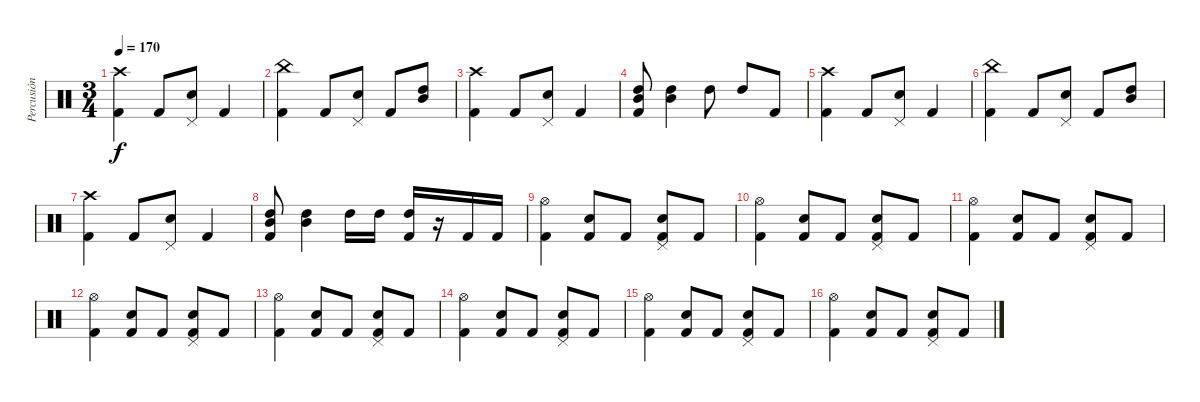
\track ("Percusión" "Percusión") {instrument percussion}
\staff {score}
\articulation defaults
\ts (3 4)
\tempo 170
\clef neutral
\ks c
("Crash high (hit)" "Kick (hit) 2").4{dy f} "Kick (hit) 2".8 ("Pedal Hi-Hat (hit)" "Snare (hit) 2").8 "Kick (hit) 2".4 |
("China (hit)" "Kick (hit) 2").4 "Kick (hit) 2".8 ("Pedal Hi-Hat (hit)" "Snare (hit) 2").8 "Kick (hit) 2".8 ("High Tom (hit)" "Mid Tom (hit)").8 |
("Crash high (hit)" "Kick (hit) 2").4 "Kick (hit) 2".8 ("Pedal Hi-Hat (hit)" "Snare (hit) 2").8 "Kick (hit) 2".4 |
("High Tom (hit)" "Mid Tom (hit)" "Kick (hit) 2").8 ("High Tom (hit)" "Mid Tom (hit)").4 "High Tom (hit)".8 "High Tom (hit)".8 "Kick (hit) 2".8 |
("Crash high (hit)" "Kick (hit) 2").4 "Kick (hit) 2".8 ("Pedal Hi-Hat (hit)" "Snare (hit) 2").8 "Kick (hit) 2".4 |
("China (hit)" "Kick (hit) 2").4 "Kick (hit) 2".8 ("Pedal Hi-Hat (hit)" "Snare (hit) 2").8 "Kick (hit) 2".8 ("High Tom (hit)" "Mid Tom (hit)").8 |
("Crash high (hit)" "Kick (hit) 2").4 "Kick (hit) 2".8 ("Pedal Hi-Hat (hit)" "Snare (hit) 2").8 "Kick (hit) 2".4 |
("High Tom (hit)" "Mid Tom (hit)" "Kick (hit) 2").8 ("High Tom (hit)" "Mid Tom (hit)").4 "High Tom (hit)".16 "High Tom (hit)".16 ("High Tom (hit)" "Kick (hit) 2").16 r.16 "Kick (hit) 2".16 "Kick (hit) 2".16 |
("Hi-Hat (open)" "Kick (hit) 2").4 ("Snare (hit) 2" "Kick (hit) 2").8 "Kick (hit) 2".8 ("Pedal Hi-Hat (hit)" "Snare (hit) 2" "Kick (hit) 2").8 "Kick (hit) 2".8 |
("Hi-Hat (open)" "Kick (hit) 2").4 ("Snare (hit) 2" "Kick (hit) 2").8 "Kick (hit) 2".8 ("Pedal Hi-Hat (hit)" "Snare (hit) 2" "Kick (hit) 2").8 "Kick (hit) 2".8 |
("Hi-Hat (open)" "Kick (hit) 2").4 ("Snare (hit) 2" "Kick (hit) 2").8 "Kick (hit) 2".8 ("Pedal Hi-Hat (hit)" "Snare (hit) 2" "Kick (hit) 2").8 "Kick (hit) 2".8 |
("Hi-Hat (open)" "Kick (hit) 2").4 ("Snare (hit) 2" "Kick (hit) 2").8 "Kick (hit) 2".8 ("Pedal Hi-Hat (hit)" "Snare (hit) 2" "Kick (hit) 2").8 "Kick (hit) 2".8 |
("Hi-Hat (open)" "Kick (hit) 2").4 ("Snare (hit) 2" "Kick (hit) 2").8 "Kick (hit) 2".8 ("Pedal Hi-Hat (hit)" "Snare (hit) 2" "Kick (hit) 2").8 "Kick (hit) 2".8 |
("Hi-Hat (open)" "Kick (hit) 2").4 ("Snare (hit) 2" "Kick (hit) 2").8 "Kick (hit) 2".8 ("Pedal Hi-Hat (hit)" "Snare (hit) 2" "Kick (hit) 2").8 "Kick (hit) 2".8 |
("Hi-Hat (open)" "Kick (hit) 2").4 ("Snare (hit) 2" "Kick (hit) 2").8 "Kick (hit) 2".8 ("Pedal Hi-Hat (hit)" "Snare (hit) 2" "Kick (hit) 2").8 "Kick (hit) 2".8 |
("Hi-Hat (open)" "Kick (hit) 2").4 ("Snare (hit) 2" "Kick (hit) 2").8 "Kick (hit) 2".8 ("Pedal Hi-Hat (hit)" "Snare (hit) 2" "Kick (hit) 2").8 "Kick (hit) 2".8
